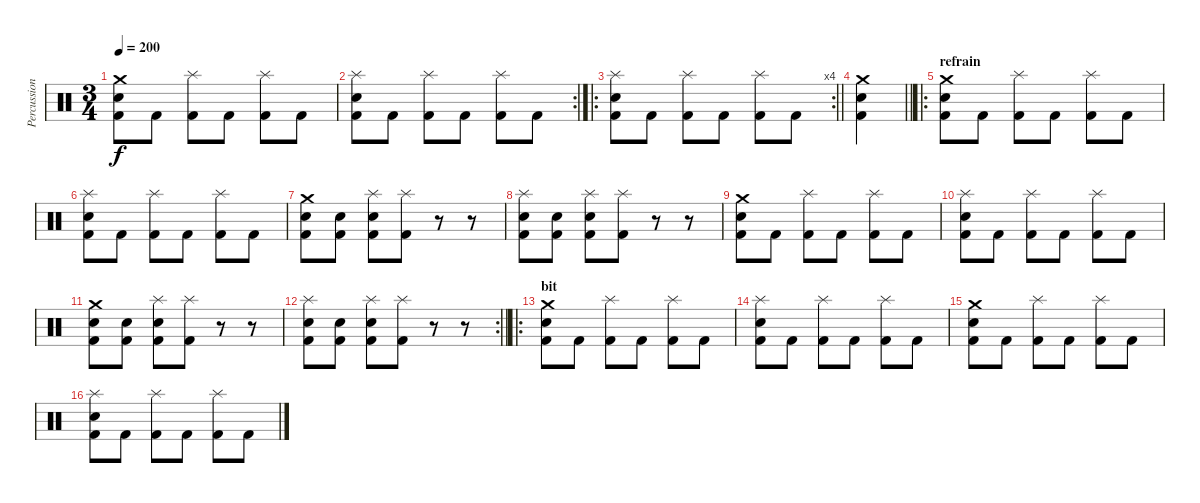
\track ("Percussion" "Percussion") {instrument percussion}
\staff {score}
\articulation defaults
\ts (3 4)
\tempo 200
\clef neutral
\ks c
("Crash medium (hit)" "Electric Snare (hit)" "Kick (hit) 2").8{dy f} "Kick (hit) 2".8 ("Splash (hit)" "Kick (hit) 2").8 "Kick (hit) 2".8 ("Splash (hit)" "Kick (hit) 2").8 "Kick (hit) 2".8 |
\rc 2
("Splash (hit)" "Electric Snare (hit)" "Kick (hit) 2").8 "Kick (hit) 2".8 ("Splash (hit)" "Kick (hit) 2").8 "Kick (hit) 2".8 ("Splash (hit)" "Kick (hit) 2").8 "Kick (hit) 2".8 |
\ro
\rc 4
\barLineRight lightlight
("Splash (hit)" "Electric Snare (hit)" "Kick (hit) 2").8 "Kick (hit) 2".8 ("Splash (hit)" "Kick (hit) 2").8 "Kick (hit) 2".8 ("Splash (hit)" "Kick (hit) 2").8 "Kick (hit) 2".8 |
\barLineRight lightlight
("Crash medium (hit)" "Electric Snare (hit)" "Kick (hit) 2").4 |
\ro
\section ("" "refrain")
("Crash medium (hit)" "Electric Snare (hit)" "Kick (hit) 2").8 "Kick (hit) 2".8 ("Splash (hit)" "Kick (hit) 2").8 "Kick (hit) 2".8 ("Splash (hit)" "Kick (hit) 2").8 "Kick (hit) 2".8 |
("Splash (hit)" "Electric Snare (hit)" "Kick (hit) 2").8 "Kick (hit) 2".8 ("Splash (hit)" "Kick (hit) 2").8 "Kick (hit) 2".8 ("Splash (hit)" "Kick (hit) 2").8 "Kick (hit) 2".8 |
("Crash medium (hit)" "Electric Snare (hit)" "Kick (hit) 2").8 ("Electric Snare (hit)" "Kick (hit) 2").8 ("Splash (hit)" "Electric Snare (hit)" "Kick (hit) 2").8 ("Splash (hit)" "Kick (hit) 2").8 r.8 r.8 |
("Splash (hit)" "Electric Snare (hit)" "Kick (hit) 2").8 ("Electric Snare (hit)" "Kick (hit) 2").8 ("Splash (hit)" "Electric Snare (hit)" "Kick (hit) 2").8 ("Splash (hit)" "Kick (hit) 2").8 r.8 r.8 |
("Crash medium (hit)" "Electric Snare (hit)" "Kick (hit) 2").8 "Kick (hit) 2".8 ("Splash (hit)" "Kick (hit) 2").8 "Kick (hit) 2".8 ("Splash (hit)" "Kick (hit) 2").8 "Kick (hit) 2".8 |
("Splash (hit)" "Electric Snare (hit)" "Kick (hit) 2").8 "Kick (hit) 2".8 ("Splash (hit)" "Kick (hit) 2").8 "Kick (hit) 2".8 ("Splash (hit)" "Kick (hit) 2").8 "Kick (hit) 2".8 |
("Crash medium (hit)" "Electric Snare (hit)" "Kick (hit) 2").8 ("Electric Snare (hit)" "Kick (hit) 2").8 ("Splash (hit)" "Electric Snare (hit)" "Kick (hit) 2").8 ("Splash (hit)" "Kick (hit) 2").8 r.8 r.8 |
\rc 2
\barLineRight lightlight
("Splash (hit)" "Electric Snare (hit)" "Kick (hit) 2").8 ("Electric Snare (hit)" "Kick (hit) 2").8 ("Splash (hit)" "Electric Snare (hit)" "Kick (hit) 2").8 ("Splash (hit)" "Kick (hit) 2").8 r.8 r.8 |
\ro
\section ("" "bit")
("Crash medium (hit)" "Electric Snare (hit)" "Kick (hit) 2").8 "Kick (hit) 2".8 ("Splash (hit)" "Kick (hit) 2").8 "Kick (hit) 2".8 ("Splash (hit)" "Kick (hit) 2").8 "Kick (hit) 2".8 |
("Splash (hit)" "Electric Snare (hit)" "Kick (hit) 2").8 "Kick (hit) 2".8 ("Splash (hit)" "Kick (hit) 2").8 "Kick (hit) 2".8 ("Splash (hit)" "Kick (hit) 2").8 "Kick (hit) 2".8 |
("Crash medium (hit)" "Electric Snare (hit)" "Kick (hit) 2").8 "Kick (hit) 2".8 ("Splash (hit)" "Kick (hit) 2").8 "Kick (hit) 2".8 ("Splash (hit)" "Kick (hit) 2").8 "Kick (hit) 2".8 |
("Splash (hit)" "Electric Snare (hit)" "Kick (hit) 2").8 "Kick (hit) 2".8 ("Splash (hit)" "Kick (hit) 2").8 "Kick (hit) 2".8 ("Splash (hit)" "Kick (hit) 2").8 "Kick (hit) 2".8
